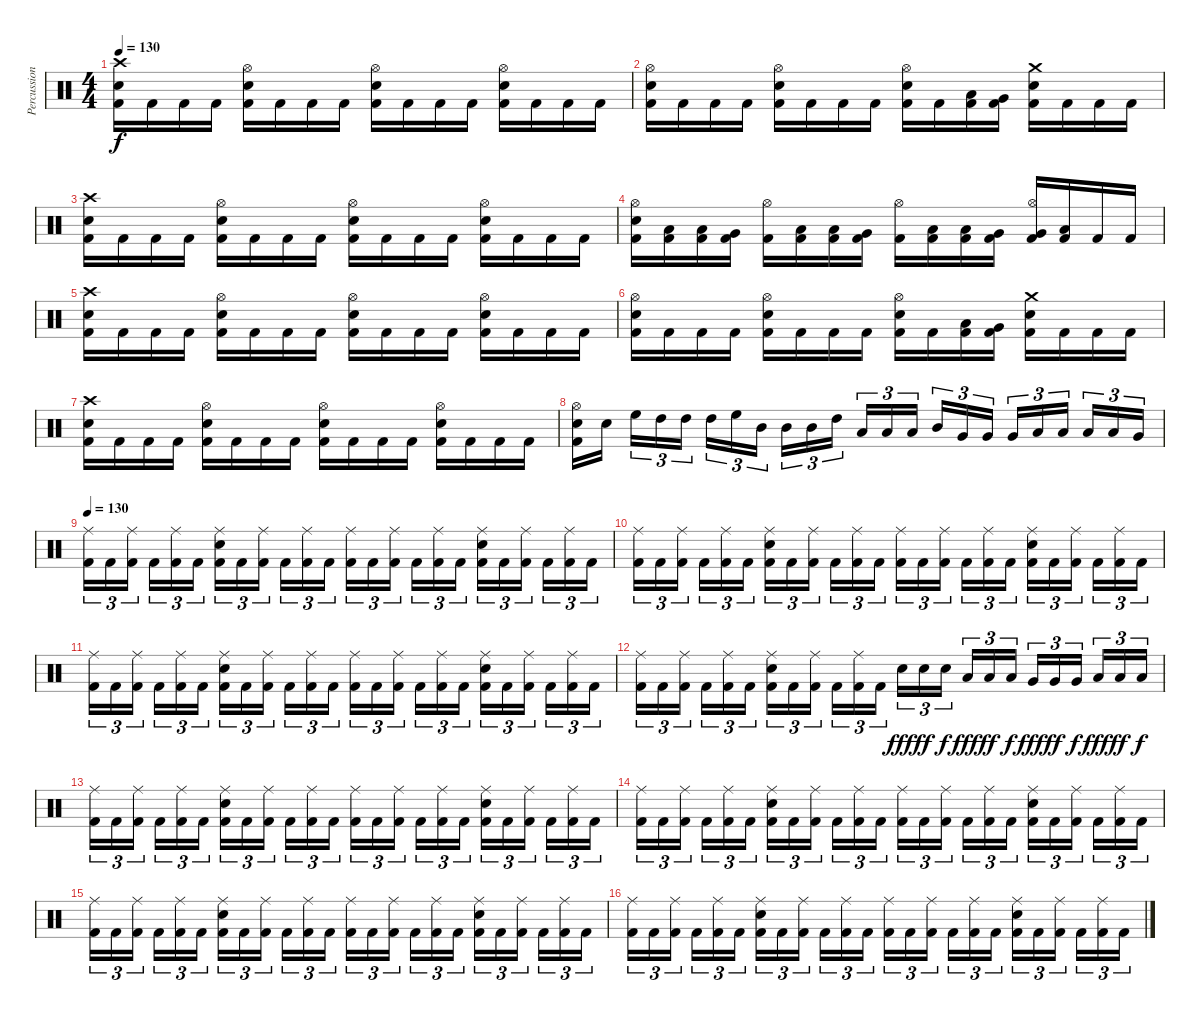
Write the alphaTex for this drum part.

\track ("Percussion" "Percussion") {instrument percussion}
\staff {score}
\articulation defaults
\ts (4 4)
\tempo 130
\clef neutral
\ks c
("Crash high (hit)" "Electric Snare (hit)" "Kick (hit) 2").16{dy f} "Kick (hit) 2".16 "Kick (hit) 2".16 "Kick (hit) 2".16 ("Hi-Hat (open)" "Electric Snare (hit)" "Kick (hit) 2").16 "Kick (hit) 2".16 "Kick (hit) 2".16 "Kick (hit) 2".16 ("Hi-Hat (open)" "Electric Snare (hit)" "Kick (hit) 2").16 "Kick (hit) 2".16 "Kick (hit) 2".16 "Kick (hit) 2".16 ("Hi-Hat (open)" "Electric Snare (hit)" "Kick (hit) 2").16 "Kick (hit) 2".16 "Kick (hit) 2".16 "Kick (hit) 2".16 |
("Hi-Hat (open)" "Electric Snare (hit)" "Kick (hit) 2").16 "Kick (hit) 2".16 "Kick (hit) 2".16 "Kick (hit) 2".16 ("Hi-Hat (open)" "Electric Snare (hit)" "Kick (hit) 2").16 "Kick (hit) 2".16 "Kick (hit) 2".16 "Kick (hit) 2".16 ("Hi-Hat (open)" "Electric Snare (hit)" "Kick (hit) 2").16 "Kick (hit) 2".16 ("Low Tom (hit)" "Kick (hit) 2").16 ("Very Low Tom (hit)" "Kick (hit) 2").16 ("Crash medium (hit)" "Electric Snare (hit)" "Kick (hit) 2").16 "Kick (hit) 2".16 "Kick (hit) 2".16 "Kick (hit) 2".16 |
("Crash high (hit)" "Electric Snare (hit)" "Kick (hit) 2").16 "Kick (hit) 2".16 "Kick (hit) 2".16 "Kick (hit) 2".16 ("Hi-Hat (open)" "Electric Snare (hit)" "Kick (hit) 2").16 "Kick (hit) 2".16 "Kick (hit) 2".16 "Kick (hit) 2".16 ("Hi-Hat (open)" "Electric Snare (hit)" "Kick (hit) 2").16 "Kick (hit) 2".16 "Kick (hit) 2".16 "Kick (hit) 2".16 ("Hi-Hat (open)" "Electric Snare (hit)" "Kick (hit) 2").16 "Kick (hit) 2".16 "Kick (hit) 2".16 "Kick (hit) 2".16 |
("Hi-Hat (open)" "Electric Snare (hit)" "Kick (hit) 2").16 ("Low Tom (hit)" "Kick (hit) 2").16 ("Low Tom (hit)" "Kick (hit) 2").16 ("Very Low Tom (hit)" "Kick (hit) 2").16 ("Hi-Hat (open)" "Kick (hit) 2").16 ("Low Tom (hit)" "Kick (hit) 2").16 ("Low Tom (hit)" "Kick (hit) 2").16 ("Very Low Tom (hit)" "Kick (hit) 2").16 ("Hi-Hat (open)" "Kick (hit) 2").16 ("Low Tom (hit)" "Kick (hit) 2").16 ("Low Tom (hit)" "Kick (hit) 2").16 ("Very Low Tom (hit)" "Kick (hit) 2").16 ("Hi-Hat (open)" "Very Low Tom (hit)" "Kick (hit) 2").16 ("Low Floor Tom (hit)" "Kick (hit) 2").16 "Kick (hit) 2".16 "Kick (hit) 2".16 |
("Crash high (hit)" "Electric Snare (hit)" "Kick (hit) 2").16 "Kick (hit) 2".16 "Kick (hit) 2".16 "Kick (hit) 2".16 ("Hi-Hat (open)" "Electric Snare (hit)" "Kick (hit) 2").16 "Kick (hit) 2".16 "Kick (hit) 2".16 "Kick (hit) 2".16 ("Hi-Hat (open)" "Electric Snare (hit)" "Kick (hit) 2").16 "Kick (hit) 2".16 "Kick (hit) 2".16 "Kick (hit) 2".16 ("Hi-Hat (open)" "Electric Snare (hit)" "Kick (hit) 2").16 "Kick (hit) 2".16 "Kick (hit) 2".16 "Kick (hit) 2".16 |
("Hi-Hat (open)" "Electric Snare (hit)" "Kick (hit) 2").16 "Kick (hit) 2".16 "Kick (hit) 2".16 "Kick (hit) 2".16 ("Hi-Hat (open)" "Electric Snare (hit)" "Kick (hit) 2").16 "Kick (hit) 2".16 "Kick (hit) 2".16 "Kick (hit) 2".16 ("Hi-Hat (open)" "Electric Snare (hit)" "Kick (hit) 2").16 "Kick (hit) 2".16 ("Low Tom (hit)" "Kick (hit) 2").16 ("Very Low Tom (hit)" "Kick (hit) 2").16 ("Crash medium (hit)" "Electric Snare (hit)" "Kick (hit) 2").16 "Kick (hit) 2".16 "Kick (hit) 2".16 "Kick (hit) 2".16 |
("Crash high (hit)" "Electric Snare (hit)" "Kick (hit) 2").16 "Kick (hit) 2".16 "Kick (hit) 2".16 "Kick (hit) 2".16 ("Hi-Hat (open)" "Electric Snare (hit)" "Kick (hit) 2").16 "Kick (hit) 2".16 "Kick (hit) 2".16 "Kick (hit) 2".16 ("Hi-Hat (open)" "Electric Snare (hit)" "Kick (hit) 2").16 "Kick (hit) 2".16 "Kick (hit) 2".16 "Kick (hit) 2".16 ("Hi-Hat (open)" "Electric Snare (hit)" "Kick (hit) 2").16 "Kick (hit) 2".16 "Kick (hit) 2".16 "Kick (hit) 2".16 |
("Hi-Hat (open)" "Electric Snare (hit)" "Kick (hit) 2").16 "Electric Snare (hit)".16 "High Floor Tom (hit)".16{tu (3 2)} "High Tom (hit)".16{tu (3 2)} "High Tom (hit)".16{tu (3 2)} "High Tom (hit)".16{tu (3 2)} "High Floor Tom (hit)".16{tu (3 2)} "Mid Tom (hit)".16{tu (3 2)} "Mid Tom (hit)".16{tu (3 2)} "Mid Tom (hit)".16{tu (3 2)} "High Tom (hit)".16{tu (3 2)} "Low Tom (hit)".16{tu (3 2)} "Low Tom (hit)".16{tu (3 2)} "Low Tom (hit)".16{tu (3 2)} "Mid Tom (hit)".16{tu (3 2)} "Very Low Tom (hit)".16{tu (3 2)} "Very Low Tom (hit)".16{tu (3 2)} "Very Low Tom (hit)".16{tu (3 2)} "Low Tom (hit)".16{tu (3 2)} "Low Floor Tom (hit)".16{tu (3 2)} "Low Floor Tom (hit)".16{tu (3 2)} "Low Floor Tom (hit)".16{tu (3 2)} "Very Low Tom (hit)".16{tu (3 2)} |
\tempo 130
("Ride (middle)" "Kick (hit) 2").16{tu (3 2)} "Kick (hit) 2".16{tu (3 2)} ("Ride (middle)" "Kick (hit) 2").16{tu (3 2)} "Kick (hit) 2".16{tu (3 2)} ("Ride (middle)" "Kick (hit) 2").16{tu (3 2)} "Kick (hit) 2".16{tu (3 2)} ("Ride (middle)" "Electric Snare (hit)" "Kick (hit) 2").16{tu (3 2)} "Kick (hit) 2".16{tu (3 2)} ("Ride (middle)" "Kick (hit) 2").16{tu (3 2)} "Kick (hit) 2".16{tu (3 2)} ("Ride (middle)" "Kick (hit) 2").16{tu (3 2)} "Kick (hit) 2".16{tu (3 2)} ("Ride (middle)" "Kick (hit) 2").16{tu (3 2)} "Kick (hit) 2".16{tu (3 2)} ("Ride (middle)" "Kick (hit) 2").16{tu (3 2)} "Kick (hit) 2".16{tu (3 2)} ("Ride (middle)" "Kick (hit) 2").16{tu (3 2)} "Kick (hit) 2".16{tu (3 2)} ("Ride (middle)" "Electric Snare (hit)" "Kick (hit) 2").16{tu (3 2)} "Kick (hit) 2".16{tu (3 2)} ("Ride (middle)" "Kick (hit) 2").16{tu (3 2)} "Kick (hit) 2".16{tu (3 2)} ("Ride (middle)" "Kick (hit) 2").16{tu (3 2)} "Kick (hit) 2".16{tu (3 2)} |
("Ride (middle)" "Kick (hit) 2").16{tu (3 2)} "Kick (hit) 2".16{tu (3 2)} ("Ride (middle)" "Kick (hit) 2").16{tu (3 2)} "Kick (hit) 2".16{tu (3 2)} ("Ride (middle)" "Kick (hit) 2").16{tu (3 2)} "Kick (hit) 2".16{tu (3 2)} ("Ride (middle)" "Electric Snare (hit)" "Kick (hit) 2").16{tu (3 2)} "Kick (hit) 2".16{tu (3 2)} ("Ride (middle)" "Kick (hit) 2").16{tu (3 2)} "Kick (hit) 2".16{tu (3 2)} ("Ride (middle)" "Kick (hit) 2").16{tu (3 2)} "Kick (hit) 2".16{tu (3 2)} ("Ride (middle)" "Kick (hit) 2").16{tu (3 2)} "Kick (hit) 2".16{tu (3 2)} ("Ride (middle)" "Kick (hit) 2").16{tu (3 2)} "Kick (hit) 2".16{tu (3 2)} ("Ride (middle)" "Kick (hit) 2").16{tu (3 2)} "Kick (hit) 2".16{tu (3 2)} ("Ride (middle)" "Electric Snare (hit)" "Kick (hit) 2").16{tu (3 2)} "Kick (hit) 2".16{tu (3 2)} ("Ride (middle)" "Kick (hit) 2").16{tu (3 2)} "Kick (hit) 2".16{tu (3 2)} ("Ride (middle)" "Kick (hit) 2").16{tu (3 2)} "Kick (hit) 2".16{tu (3 2)} |
("Ride (middle)" "Kick (hit) 2").16{tu (3 2)} "Kick (hit) 2".16{tu (3 2)} ("Ride (middle)" "Kick (hit) 2").16{tu (3 2)} "Kick (hit) 2".16{tu (3 2)} ("Ride (middle)" "Kick (hit) 2").16{tu (3 2)} "Kick (hit) 2".16{tu (3 2)} ("Ride (middle)" "Electric Snare (hit)" "Kick (hit) 2").16{tu (3 2)} "Kick (hit) 2".16{tu (3 2)} ("Ride (middle)" "Kick (hit) 2").16{tu (3 2)} "Kick (hit) 2".16{tu (3 2)} ("Ride (middle)" "Kick (hit) 2").16{tu (3 2)} "Kick (hit) 2".16{tu (3 2)} ("Ride (middle)" "Kick (hit) 2").16{tu (3 2)} "Kick (hit) 2".16{tu (3 2)} ("Ride (middle)" "Kick (hit) 2").16{tu (3 2)} "Kick (hit) 2".16{tu (3 2)} ("Ride (middle)" "Kick (hit) 2").16{tu (3 2)} "Kick (hit) 2".16{tu (3 2)} ("Ride (middle)" "Electric Snare (hit)" "Kick (hit) 2").16{tu (3 2)} "Kick (hit) 2".16{tu (3 2)} ("Ride (middle)" "Kick (hit) 2").16{tu (3 2)} "Kick (hit) 2".16{tu (3 2)} ("Ride (middle)" "Kick (hit) 2").16{tu (3 2)} "Kick (hit) 2".16{tu (3 2)} |
("Ride (middle)" "Kick (hit) 2").16{tu (3 2)} "Kick (hit) 2".16{tu (3 2)} ("Ride (middle)" "Kick (hit) 2").16{tu (3 2)} "Kick (hit) 2".16{tu (3 2)} ("Ride (middle)" "Kick (hit) 2").16{tu (3 2)} "Kick (hit) 2".16{tu (3 2)} ("Ride (middle)" "Electric Snare (hit)" "Kick (hit) 2").16{tu (3 2)} "Kick (hit) 2".16{tu (3 2)} ("Ride (middle)" "Kick (hit) 2").16{tu (3 2)} "Kick (hit) 2".16{tu (3 2)} ("Ride (middle)" "Kick (hit) 2").16{tu (3 2)} "Kick (hit) 2".16{tu (3 2)} "Electric Snare (hit)".16{tu (3 2) dy fff} "Electric Snare (hit)".16{tu (3 2) dy ff} "Electric Snare (hit)".16{tu (3 2) dy f} "Low Tom (hit)".16{tu (3 2) dy fff} "Low Tom (hit)".16{tu (3 2) dy ff} "Low Tom (hit)".16{tu (3 2) dy f} "Very Low Tom (hit)".16{tu (3 2) dy fff} "Very Low Tom (hit)".16{tu (3 2) dy ff} "Very Low Tom (hit)".16{tu (3 2) dy f} "Low Floor Tom (hit)".16{tu (3 2) dy fff} "Low Floor Tom (hit)".16{tu (3 2) dy ff} "Low Floor Tom (hit)".16{tu (3 2) dy f} |
("Ride (middle)" "Kick (hit) 2").16{tu (3 2)} "Kick (hit) 2".16{tu (3 2)} ("Ride (middle)" "Kick (hit) 2").16{tu (3 2)} "Kick (hit) 2".16{tu (3 2)} ("Ride (middle)" "Kick (hit) 2").16{tu (3 2)} "Kick (hit) 2".16{tu (3 2)} ("Ride (middle)" "Electric Snare (hit)" "Kick (hit) 2").16{tu (3 2)} "Kick (hit) 2".16{tu (3 2)} ("Ride (middle)" "Kick (hit) 2").16{tu (3 2)} "Kick (hit) 2".16{tu (3 2)} ("Ride (middle)" "Kick (hit) 2").16{tu (3 2)} "Kick (hit) 2".16{tu (3 2)} ("Ride (middle)" "Kick (hit) 2").16{tu (3 2)} "Kick (hit) 2".16{tu (3 2)} ("Ride (middle)" "Kick (hit) 2").16{tu (3 2)} "Kick (hit) 2".16{tu (3 2)} ("Ride (middle)" "Kick (hit) 2").16{tu (3 2)} "Kick (hit) 2".16{tu (3 2)} ("Ride (middle)" "Electric Snare (hit)" "Kick (hit) 2").16{tu (3 2)} "Kick (hit) 2".16{tu (3 2)} ("Ride (middle)" "Kick (hit) 2").16{tu (3 2)} "Kick (hit) 2".16{tu (3 2)} ("Ride (middle)" "Kick (hit) 2").16{tu (3 2)} "Kick (hit) 2".16{tu (3 2)} |
("Ride (middle)" "Kick (hit) 2").16{tu (3 2)} "Kick (hit) 2".16{tu (3 2)} ("Ride (middle)" "Kick (hit) 2").16{tu (3 2)} "Kick (hit) 2".16{tu (3 2)} ("Ride (middle)" "Kick (hit) 2").16{tu (3 2)} "Kick (hit) 2".16{tu (3 2)} ("Ride (middle)" "Electric Snare (hit)" "Kick (hit) 2").16{tu (3 2)} "Kick (hit) 2".16{tu (3 2)} ("Ride (middle)" "Kick (hit) 2").16{tu (3 2)} "Kick (hit) 2".16{tu (3 2)} ("Ride (middle)" "Kick (hit) 2").16{tu (3 2)} "Kick (hit) 2".16{tu (3 2)} ("Ride (middle)" "Kick (hit) 2").16{tu (3 2)} "Kick (hit) 2".16{tu (3 2)} ("Ride (middle)" "Kick (hit) 2").16{tu (3 2)} "Kick (hit) 2".16{tu (3 2)} ("Ride (middle)" "Kick (hit) 2").16{tu (3 2)} "Kick (hit) 2".16{tu (3 2)} ("Ride (middle)" "Electric Snare (hit)" "Kick (hit) 2").16{tu (3 2)} "Kick (hit) 2".16{tu (3 2)} ("Ride (middle)" "Kick (hit) 2").16{tu (3 2)} "Kick (hit) 2".16{tu (3 2)} ("Ride (middle)" "Kick (hit) 2").16{tu (3 2)} "Kick (hit) 2".16{tu (3 2)} |
("Ride (middle)" "Kick (hit) 2").16{tu (3 2)} "Kick (hit) 2".16{tu (3 2)} ("Ride (middle)" "Kick (hit) 2").16{tu (3 2)} "Kick (hit) 2".16{tu (3 2)} ("Ride (middle)" "Kick (hit) 2").16{tu (3 2)} "Kick (hit) 2".16{tu (3 2)} ("Ride (middle)" "Electric Snare (hit)" "Kick (hit) 2").16{tu (3 2)} "Kick (hit) 2".16{tu (3 2)} ("Ride (middle)" "Kick (hit) 2").16{tu (3 2)} "Kick (hit) 2".16{tu (3 2)} ("Ride (middle)" "Kick (hit) 2").16{tu (3 2)} "Kick (hit) 2".16{tu (3 2)} ("Ride (middle)" "Kick (hit) 2").16{tu (3 2)} "Kick (hit) 2".16{tu (3 2)} ("Ride (middle)" "Kick (hit) 2").16{tu (3 2)} "Kick (hit) 2".16{tu (3 2)} ("Ride (middle)" "Kick (hit) 2").16{tu (3 2)} "Kick (hit) 2".16{tu (3 2)} ("Ride (middle)" "Electric Snare (hit)" "Kick (hit) 2").16{tu (3 2)} "Kick (hit) 2".16{tu (3 2)} ("Ride (middle)" "Kick (hit) 2").16{tu (3 2)} "Kick (hit) 2".16{tu (3 2)} ("Ride (middle)" "Kick (hit) 2").16{tu (3 2)} "Kick (hit) 2".16{tu (3 2)} |
("Ride (middle)" "Kick (hit) 2").16{tu (3 2)} "Kick (hit) 2".16{tu (3 2)} ("Ride (middle)" "Kick (hit) 2").16{tu (3 2)} "Kick (hit) 2".16{tu (3 2)} ("Ride (middle)" "Kick (hit) 2").16{tu (3 2)} "Kick (hit) 2".16{tu (3 2)} ("Ride (middle)" "Electric Snare (hit)" "Kick (hit) 2").16{tu (3 2)} "Kick (hit) 2".16{tu (3 2)} ("Ride (middle)" "Kick (hit) 2").16{tu (3 2)} "Kick (hit) 2".16{tu (3 2)} ("Ride (middle)" "Kick (hit) 2").16{tu (3 2)} "Kick (hit) 2".16{tu (3 2)} ("Ride (middle)" "Kick (hit) 2").16{tu (3 2)} "Kick (hit) 2".16{tu (3 2)} ("Ride (middle)" "Kick (hit) 2").16{tu (3 2)} "Kick (hit) 2".16{tu (3 2)} ("Ride (middle)" "Kick (hit) 2").16{tu (3 2)} "Kick (hit) 2".16{tu (3 2)} ("Ride (middle)" "Electric Snare (hit)" "Kick (hit) 2").16{tu (3 2)} "Kick (hit) 2".16{tu (3 2)} ("Ride (middle)" "Kick (hit) 2").16{tu (3 2)} "Kick (hit) 2".16{tu (3 2)} ("Ride (middle)" "Kick (hit) 2").16{tu (3 2)} "Kick (hit) 2".16{tu (3 2)}
